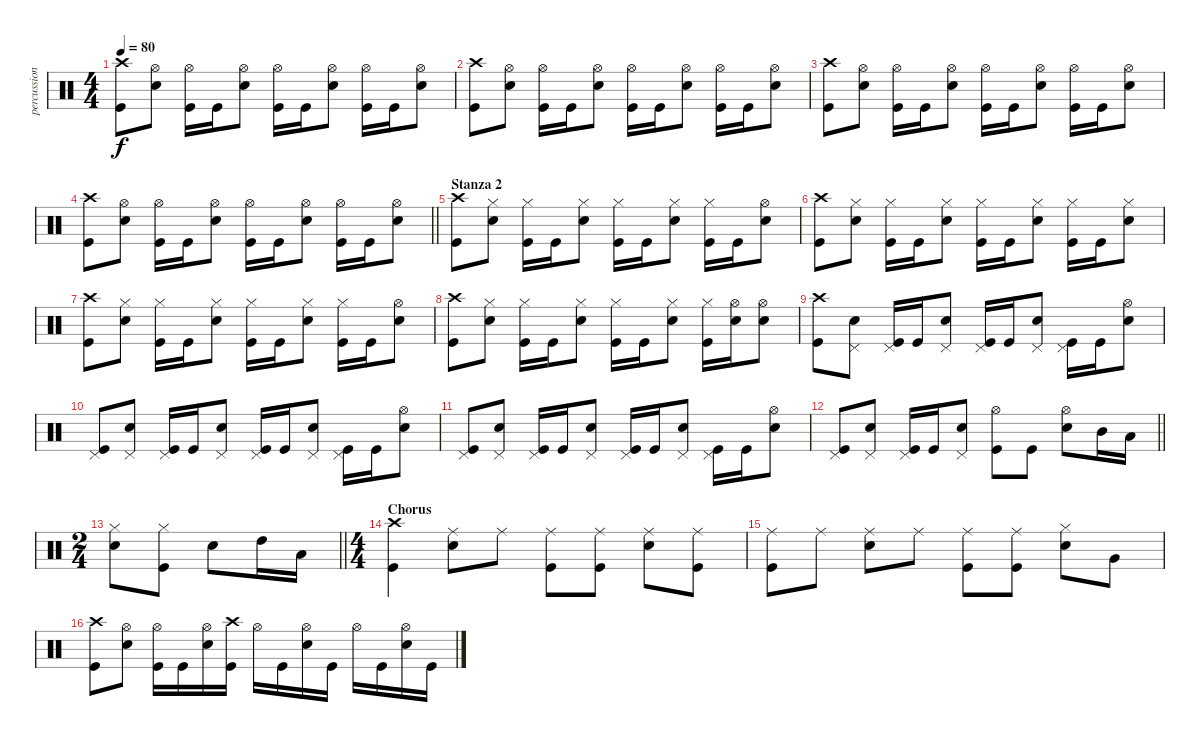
\track ("percussion" "percussion") {instrument percussion}
\staff {score}
\articulation defaults
\ts (4 4)
\tempo 80
\clef neutral
\ks c
("Crash high (hit)" "Kick (hit)").8{dy f} ("Hi-Hat (open)" "Snare (hit) 2").8 ("Hi-Hat (open)" "Kick (hit)").16 "Kick (hit)".16 ("Hi-Hat (open)" "Snare (hit) 2").8 ("Hi-Hat (open)" "Kick (hit)").16 "Kick (hit)".16 ("Hi-Hat (open)" "Snare (hit) 2").8 ("Hi-Hat (open)" "Kick (hit)").16 "Kick (hit)".16 ("Hi-Hat (open)" "Snare (hit) 2").8 |
("Crash high (hit)" "Kick (hit)").8 ("Hi-Hat (open)" "Snare (hit) 2").8 ("Hi-Hat (open)" "Kick (hit)").16 "Kick (hit)".16 ("Hi-Hat (open)" "Snare (hit) 2").8 ("Hi-Hat (open)" "Kick (hit)").16 "Kick (hit)".16 ("Hi-Hat (open)" "Snare (hit) 2").8 ("Hi-Hat (open)" "Kick (hit)").16 "Kick (hit)".16 ("Hi-Hat (open)" "Snare (hit) 2").8 |
("Crash high (hit)" "Kick (hit)").8 ("Hi-Hat (open)" "Snare (hit) 2").8 ("Hi-Hat (open)" "Kick (hit)").16 "Kick (hit)".16 ("Hi-Hat (open)" "Snare (hit) 2").8 ("Hi-Hat (open)" "Kick (hit)").16 "Kick (hit)".16 ("Hi-Hat (open)" "Snare (hit) 2").8 ("Hi-Hat (open)" "Kick (hit)").16 "Kick (hit)".16 ("Hi-Hat (open)" "Snare (hit) 2").8 |
\barLineRight lightlight
("Crash high (hit)" "Kick (hit)").8 ("Hi-Hat (open)" "Snare (hit) 2").8 ("Hi-Hat (open)" "Kick (hit)").16 "Kick (hit)".16 ("Hi-Hat (open)" "Snare (hit) 2").8 ("Hi-Hat (open)" "Kick (hit)").16 "Kick (hit)".16 ("Hi-Hat (open)" "Snare (hit) 2").8 ("Hi-Hat (open)" "Kick (hit)").16 "Kick (hit)".16 ("Hi-Hat (open)" "Snare (hit) 2").8 |
\section ("" "Stanza 2")
("Crash high (hit)" "Kick (hit)").8 ("Hi-Hat (closed)" "Snare (hit) 2").8 ("Hi-Hat (closed)" "Kick (hit)").16 "Kick (hit)".16 ("Hi-Hat (closed)" "Snare (hit) 2").8 ("Hi-Hat (closed)" "Kick (hit)").16 "Kick (hit)".16 ("Hi-Hat (closed)" "Snare (hit) 2").8 ("Hi-Hat (closed)" "Kick (hit)").16 "Kick (hit)".16 ("Hi-Hat (open)" "Snare (hit) 2").8 |
("Crash high (hit)" "Kick (hit)").8 ("Hi-Hat (closed)" "Snare (hit) 2").8 ("Hi-Hat (closed)" "Kick (hit)").16 "Kick (hit)".16 ("Hi-Hat (closed)" "Snare (hit) 2").8 ("Hi-Hat (closed)" "Kick (hit)").16 "Kick (hit)".16 ("Hi-Hat (closed)" "Snare (hit) 2").8 ("Hi-Hat (closed)" "Kick (hit)").16 "Kick (hit)".16 ("Hi-Hat (closed)" "Snare (hit) 2").8 |
("Crash high (hit)" "Kick (hit)").8 ("Hi-Hat (closed)" "Snare (hit) 2").8 ("Hi-Hat (closed)" "Kick (hit)").16 "Kick (hit)".16 ("Hi-Hat (closed)" "Snare (hit) 2").8 ("Hi-Hat (closed)" "Kick (hit)").16 "Kick (hit)".16 ("Hi-Hat (closed)" "Snare (hit) 2").8 ("Hi-Hat (closed)" "Kick (hit)").16 "Kick (hit)".16 ("Hi-Hat (open)" "Snare (hit) 2").8 |
("Crash high (hit)" "Kick (hit)").8 ("Hi-Hat (closed)" "Snare (hit) 2").8 ("Hi-Hat (closed)" "Kick (hit)").16 "Kick (hit)".16 ("Hi-Hat (closed)" "Snare (hit) 2").8 ("Hi-Hat (closed)" "Kick (hit)").16 "Kick (hit)".16 ("Hi-Hat (closed)" "Snare (hit) 2").8 ("Hi-Hat (closed)" "Kick (hit)").16 ("Hi-Hat (open)" "Snare (hit) 2").16 ("Hi-Hat (open)" "Snare (hit) 2").8 |
("Crash high (hit)" "Kick (hit)").8 ("Pedal Hi-Hat (hit)" "Snare (hit) 2").8 ("Pedal Hi-Hat (hit)" "Kick (hit)").16 "Kick (hit)".16 ("Pedal Hi-Hat (hit)" "Snare (hit) 2").8 ("Pedal Hi-Hat (hit)" "Kick (hit)").16 "Kick (hit)".16 ("Pedal Hi-Hat (hit)" "Snare (hit) 2").8 ("Pedal Hi-Hat (hit)" "Kick (hit)").16 "Kick (hit)".16 ("Hi-Hat (open)" "Snare (hit) 2").8 |
("Pedal Hi-Hat (hit)" "Kick (hit)").8 ("Pedal Hi-Hat (hit)" "Snare (hit) 2").8 ("Pedal Hi-Hat (hit)" "Kick (hit)").16 "Kick (hit)".16 ("Pedal Hi-Hat (hit)" "Snare (hit) 2").8 ("Pedal Hi-Hat (hit)" "Kick (hit)").16 "Kick (hit)".16 ("Pedal Hi-Hat (hit)" "Snare (hit) 2").8 ("Pedal Hi-Hat (hit)" "Kick (hit)").16 "Kick (hit)".16 ("Hi-Hat (open)" "Snare (hit) 2").8 |
("Pedal Hi-Hat (hit)" "Kick (hit)").8 ("Pedal Hi-Hat (hit)" "Snare (hit) 2").8 ("Pedal Hi-Hat (hit)" "Kick (hit)").16 "Kick (hit)".16 ("Pedal Hi-Hat (hit)" "Snare (hit) 2").8 ("Pedal Hi-Hat (hit)" "Kick (hit)").16 "Kick (hit)".16 ("Pedal Hi-Hat (hit)" "Snare (hit) 2").8 ("Pedal Hi-Hat (hit)" "Kick (hit)").16 "Kick (hit)".16 ("Hi-Hat (open)" "Snare (hit) 2").8 |
\barLineRight lightlight
("Pedal Hi-Hat (hit)" "Kick (hit)").8 ("Pedal Hi-Hat (hit)" "Snare (hit) 2").8 ("Pedal Hi-Hat (hit)" "Kick (hit)").16 "Kick (hit)".16 ("Pedal Hi-Hat (hit)" "Snare (hit) 2").8 ("Hi-Hat (open)" "Kick (hit)").8 "Kick (hit)".8 ("Hi-Hat (open)" "Snare (hit) 2").8 "Mid Tom (hit)".16 "Low Tom (hit)".16 |
\ts (2 4)
\barLineRight lightlight
("Hi-Hat (closed)" "Snare (hit) 2").8 ("Hi-Hat (closed)" "Kick (hit)").8 "Snare (hit) 2".8 "High Tom (hit)".16 "Low Tom (hit)".16 |
\ts (4 4)
\section ("" "Chorus ")
("Crash high (hit)" "Kick (hit)").4 ("Ride (middle)" "Snare (hit) 2").8 "Ride (middle)".8 ("Ride (middle)" "Kick (hit)").8 ("Ride (middle)" "Kick (hit)").8 ("Ride (middle)" "Snare (hit) 2").8 ("Ride (middle)" "Kick (hit)").8 |
("Ride (middle)" "Kick (hit)").8 "Ride (middle)".8 ("Ride (middle)" "Snare (hit) 2").8 "Ride (middle)".8 ("Ride (middle)" "Kick (hit)").8 ("Ride (middle)" "Kick (hit)").8 ("Hi-Hat (closed)" "Snare (hit) 2").8 "Very Low Tom (hit)".8 |
("Crash high (hit)" "Kick (hit)").8 ("Hi-Hat (open)" "Snare (hit) 2").8 ("Hi-Hat (open)" "Kick (hit)").16 "Kick (hit)".16 ("Hi-Hat (open)" "Snare (hit) 2").16 ("Crash high (hit)" "Kick (hit)").16 "Hi-Hat (open)".16 "Kick (hit)".16 ("Hi-Hat (open)" "Snare (hit) 2").16 "Kick (hit)".16 "Hi-Hat (open)".16 "Kick (hit)".16 ("Hi-Hat (open)" "Snare (hit) 2").16 "Kick (hit)".16
